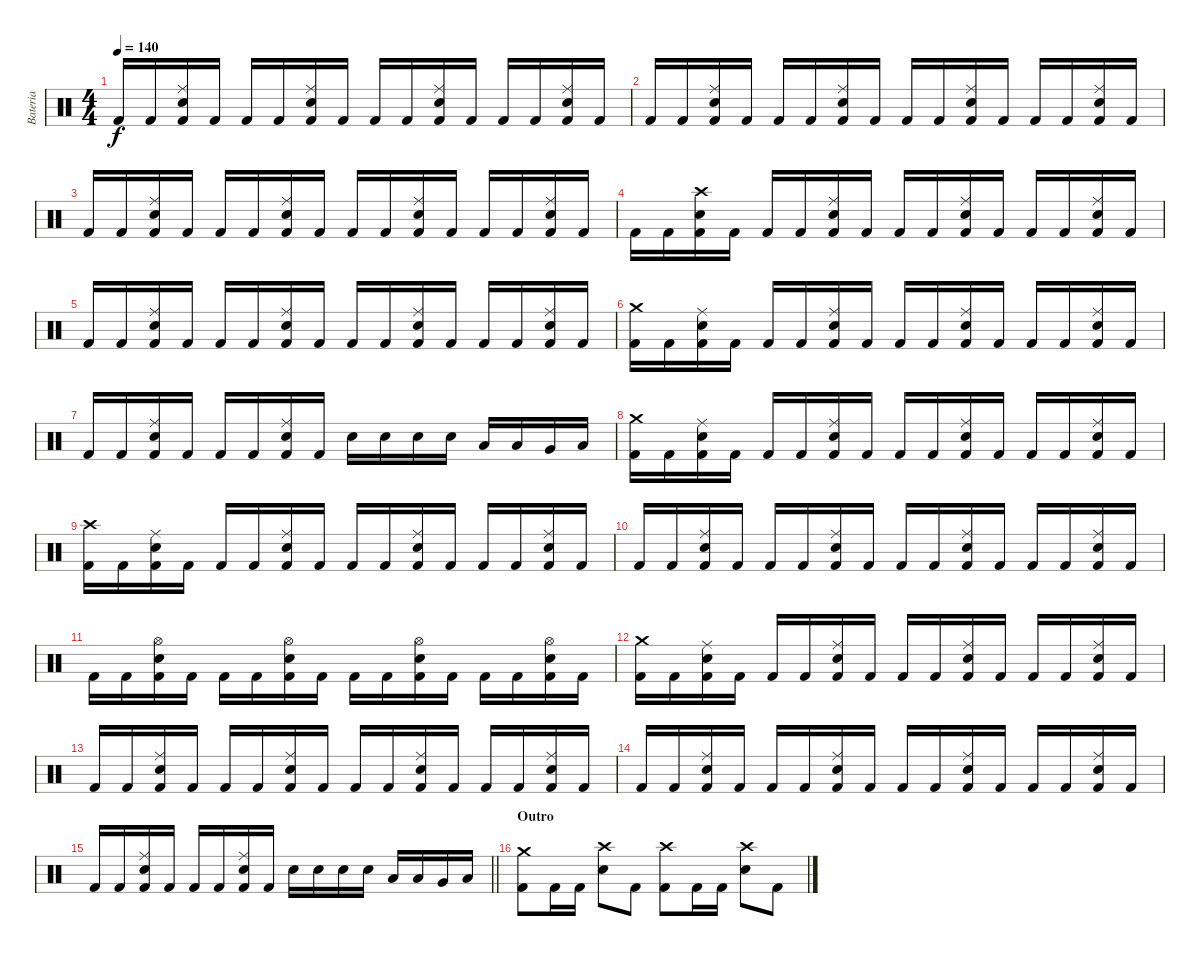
\track ("Bateria" "Bateria") {instrument percussion}
\staff {score}
\articulation defaults
\ts (4 4)
\tempo 140
\clef neutral
\ks c "Kick (hit) 2".16{dy f} "Kick (hit) 2".16
("Ride (middle)" "Snare (hit) 2" "Kick (hit) 2").16 "Kick (hit) 2".16 "Kick (hit) 2".16 "Kick (hit) 2".16 ("Ride (middle)" "Snare (hit) 2" "Kick (hit) 2").16 "Kick (hit) 2".16 "Kick (hit) 2".16 "Kick (hit) 2".16 ("Ride (middle)" "Snare (hit) 2" "Kick (hit) 2").16 "Kick (hit) 2".16 "Kick (hit) 2".16 "Kick (hit) 2".16 ("Ride (middle)" "Snare (hit) 2" "Kick (hit) 2").16 "Kick (hit) 2".16 |
"Kick (hit) 2".16 "Kick (hit) 2".16 ("Ride (middle)" "Snare (hit) 2" "Kick (hit) 2").16 "Kick (hit) 2".16 "Kick (hit) 2".16 "Kick (hit) 2".16 ("Ride (middle)" "Snare (hit) 2" "Kick (hit) 2").16 "Kick (hit) 2".16 "Kick (hit) 2".16 "Kick (hit) 2".16 ("Ride (middle)" "Snare (hit) 2" "Kick (hit) 2").16 "Kick (hit) 2".16 "Kick (hit) 2".16 "Kick (hit) 2".16 ("Ride (middle)" "Snare (hit) 2" "Kick (hit) 2").16 "Kick (hit) 2".16 |
"Kick (hit) 2".16 "Kick (hit) 2".16 ("Ride (middle)" "Snare (hit) 2" "Kick (hit) 2").16 "Kick (hit) 2".16 "Kick (hit) 2".16 "Kick (hit) 2".16 ("Ride (middle)" "Snare (hit) 2" "Kick (hit) 2").16 "Kick (hit) 2".16 "Kick (hit) 2".16 "Kick (hit) 2".16 ("Ride (middle)" "Snare (hit) 2" "Kick (hit) 2").16 "Kick (hit) 2".16 "Kick (hit) 2".16 "Kick (hit) 2".16 ("Ride (middle)" "Snare (hit) 2" "Kick (hit) 2").16 "Kick (hit) 2".16 |
"Kick (hit) 2".16 "Kick (hit) 2".16 ("Crash high (hit)" "Snare (hit) 2" "Kick (hit) 2").16 "Kick (hit) 2".16 "Kick (hit) 2".16 "Kick (hit) 2".16 ("Ride (middle)" "Snare (hit) 2" "Kick (hit) 2").16 "Kick (hit) 2".16 "Kick (hit) 2".16 "Kick (hit) 2".16 ("Ride (middle)" "Snare (hit) 2" "Kick (hit) 2").16 "Kick (hit) 2".16 "Kick (hit) 2".16 "Kick (hit) 2".16 ("Ride (middle)" "Snare (hit) 2" "Kick (hit) 2").16 "Kick (hit) 2".16 |
"Kick (hit) 2".16 "Kick (hit) 2".16 ("Ride (middle)" "Snare (hit) 2" "Kick (hit) 2").16 "Kick (hit) 2".16 "Kick (hit) 2".16 "Kick (hit) 2".16 ("Ride (middle)" "Snare (hit) 2" "Kick (hit) 2").16 "Kick (hit) 2".16 "Kick (hit) 2".16 "Kick (hit) 2".16 ("Ride (middle)" "Snare (hit) 2" "Kick (hit) 2").16 "Kick (hit) 2".16 "Kick (hit) 2".16 "Kick (hit) 2".16 ("Ride (middle)" "Snare (hit) 2" "Kick (hit) 2").16 "Kick (hit) 2".16 |
("Crash medium (hit)" "Kick (hit) 2").16 "Kick (hit) 2".16 ("Ride (middle)" "Snare (hit) 2" "Kick (hit) 2").16 "Kick (hit) 2".16 "Kick (hit) 2".16 "Kick (hit) 2".16 ("Ride (middle)" "Snare (hit) 2" "Kick (hit) 2").16 "Kick (hit) 2".16 "Kick (hit) 2".16 "Kick (hit) 2".16 ("Ride (middle)" "Snare (hit) 2" "Kick (hit) 2").16 "Kick (hit) 2".16 "Kick (hit) 2".16 "Kick (hit) 2".16 ("Ride (middle)" "Snare (hit) 2" "Kick (hit) 2").16 "Kick (hit) 2".16 |
"Kick (hit) 2".16 "Kick (hit) 2".16 ("Ride (middle)" "Snare (hit) 2" "Kick (hit) 2").16 "Kick (hit) 2".16 "Kick (hit) 2".16 "Kick (hit) 2".16 ("Ride (middle)" "Snare (hit) 2" "Kick (hit) 2").16 "Kick (hit) 2".16 "Snare (hit) 2".16 "Snare (hit) 2".16 "Snare (hit) 2".16 "Snare (hit) 2".16 "Low Tom (hit)".16 "Low Tom (hit)".16 "Very Low Tom (hit)".16 "Low Floor Tom (hit)".16 |
("Crash medium (hit)" "Kick (hit) 2").16 "Kick (hit) 2".16 ("Ride (middle)" "Snare (hit) 2" "Kick (hit) 2").16 "Kick (hit) 2".16 "Kick (hit) 2".16 "Kick (hit) 2".16 ("Ride (middle)" "Snare (hit) 2" "Kick (hit) 2").16 "Kick (hit) 2".16 "Kick (hit) 2".16 "Kick (hit) 2".16 ("Ride (middle)" "Snare (hit) 2" "Kick (hit) 2").16 "Kick (hit) 2".16 "Kick (hit) 2".16 "Kick (hit) 2".16 ("Ride (middle)" "Snare (hit) 2" "Kick (hit) 2").16 "Kick (hit) 2".16 |
("Crash high (hit)" "Kick (hit) 2").16 "Kick (hit) 2".16 ("Ride (middle)" "Snare (hit) 2" "Kick (hit) 2").16 "Kick (hit) 2".16 "Kick (hit) 2".16 "Kick (hit) 2".16 ("Ride (middle)" "Snare (hit) 2" "Kick (hit) 2").16 "Kick (hit) 2".16 "Kick (hit) 2".16 "Kick (hit) 2".16 ("Ride (middle)" "Snare (hit) 2" "Kick (hit) 2").16 "Kick (hit) 2".16 "Kick (hit) 2".16 "Kick (hit) 2".16 ("Ride (middle)" "Snare (hit) 2" "Kick (hit) 2").16 "Kick (hit) 2".16 |
"Kick (hit) 2".16 "Kick (hit) 2".16 ("Ride (middle)" "Snare (hit) 2" "Kick (hit) 2").16 "Kick (hit) 2".16 "Kick (hit) 2".16 "Kick (hit) 2".16 ("Ride (middle)" "Snare (hit) 2" "Kick (hit) 2").16 "Kick (hit) 2".16 "Kick (hit) 2".16 "Kick (hit) 2".16 ("Ride (middle)" "Snare (hit) 2" "Kick (hit) 2").16 "Kick (hit) 2".16 "Kick (hit) 2".16 "Kick (hit) 2".16 ("Ride (middle)" "Snare (hit) 2" "Kick (hit) 2").16 "Kick (hit) 2".16 |
"Kick (hit) 2".16 "Kick (hit) 2".16 ("Hi-Hat (open)" "Snare (hit) 2" "Kick (hit) 2").16 "Kick (hit) 2".16 "Kick (hit) 2".16 "Kick (hit) 2".16 ("Hi-Hat (open)" "Snare (hit) 2" "Kick (hit) 2").16 "Kick (hit) 2".16 "Kick (hit) 2".16 "Kick (hit) 2".16 ("Hi-Hat (open)" "Snare (hit) 2" "Kick (hit) 2").16 "Kick (hit) 2".16 "Kick (hit) 2".16 "Kick (hit) 2".16 ("Hi-Hat (open)" "Snare (hit) 2" "Kick (hit) 2").16 "Kick (hit) 2".16 |
("Crash medium (hit)" "Kick (hit) 2").16 "Kick (hit) 2".16 ("Ride (middle)" "Snare (hit) 2" "Kick (hit) 2").16 "Kick (hit) 2".16 "Kick (hit) 2".16 "Kick (hit) 2".16 ("Ride (middle)" "Snare (hit) 2" "Kick (hit) 2").16 "Kick (hit) 2".16 "Kick (hit) 2".16 "Kick (hit) 2".16 ("Ride (middle)" "Snare (hit) 2" "Kick (hit) 2").16 "Kick (hit) 2".16 "Kick (hit) 2".16 "Kick (hit) 2".16 ("Ride (middle)" "Snare (hit) 2" "Kick (hit) 2").16 "Kick (hit) 2".16 |
"Kick (hit) 2".16 "Kick (hit) 2".16 ("Ride (middle)" "Snare (hit) 2" "Kick (hit) 2").16 "Kick (hit) 2".16 "Kick (hit) 2".16 "Kick (hit) 2".16 ("Ride (middle)" "Snare (hit) 2" "Kick (hit) 2").16 "Kick (hit) 2".16 "Kick (hit) 2".16 "Kick (hit) 2".16 ("Ride (middle)" "Snare (hit) 2" "Kick (hit) 2").16 "Kick (hit) 2".16 "Kick (hit) 2".16 "Kick (hit) 2".16 ("Ride (middle)" "Snare (hit) 2" "Kick (hit) 2").16 "Kick (hit) 2".16 |
"Kick (hit) 2".16 "Kick (hit) 2".16 ("Ride (middle)" "Snare (hit) 2" "Kick (hit) 2").16 "Kick (hit) 2".16 "Kick (hit) 2".16 "Kick (hit) 2".16 ("Ride (middle)" "Snare (hit) 2" "Kick (hit) 2").16 "Kick (hit) 2".16 "Kick (hit) 2".16 "Kick (hit) 2".16 ("Ride (middle)" "Snare (hit) 2" "Kick (hit) 2").16 "Kick (hit) 2".16 "Kick (hit) 2".16 "Kick (hit) 2".16 ("Ride (middle)" "Snare (hit) 2" "Kick (hit) 2").16 "Kick (hit) 2".16 |
\barLineRight lightlight "Kick (hit) 2".16 "Kick (hit) 2".16
("Ride (middle)" "Snare (hit) 2" "Kick (hit) 2").16 "Kick (hit) 2".16 "Kick (hit) 2".16 "Kick (hit) 2".16 ("Ride (middle)" "Snare (hit) 2" "Kick (hit) 2").16 "Kick (hit) 2".16 "Snare (hit) 2".16 "Snare (hit) 2".16 "Snare (hit) 2".16 "Snare (hit) 2".16 "Low Tom (hit)".16 "Low Tom (hit)".16 "Very Low Tom (hit)".16 "Low Floor Tom (hit)".16 |
\section ("" "Outro")
("Crash medium (hit)" "Kick (hit) 2").8 "Kick (hit) 2".16 "Kick (hit) 2".16 ("Crash high (hit)" "Snare (hit) 2").8 "Kick (hit) 2".8 ("Crash high (hit)" "Kick (hit) 2").8 "Kick (hit) 2".16 "Kick (hit) 2".16 ("Crash high (hit)" "Snare (hit) 2").8 "Kick (hit) 2".8
